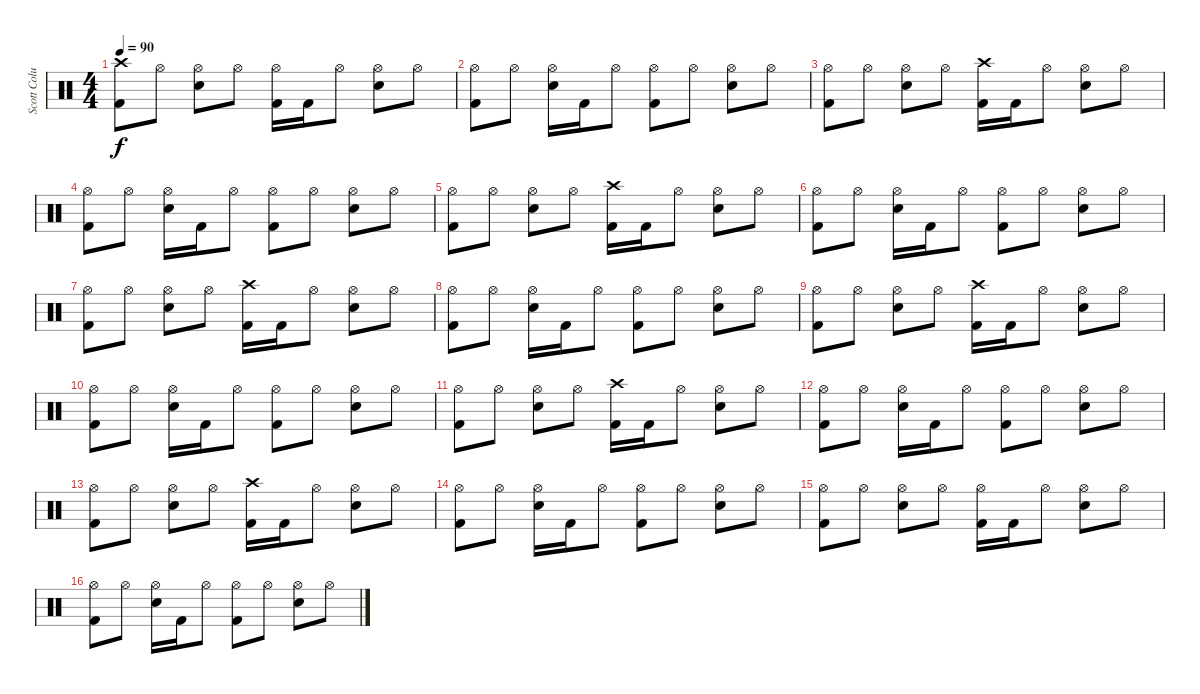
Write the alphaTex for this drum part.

\track ("Scott Columbus" "Scott Colu") {instrument percussion}
\staff {score}
\articulation defaults
\ts (4 4)
\tempo 90
\clef neutral
\ks c
("Crash high (hit)" "Kick (hit) 2").8{dy f volume 12} "Hi-Hat (open)".8 ("Hi-Hat (open)" "Snare (hit) 2").8 "Hi-Hat (open)".8 ("Hi-Hat (open)" "Kick (hit) 2").16 "Kick (hit) 2".16 "Hi-Hat (open)".8 ("Hi-Hat (open)" "Snare (hit) 2").8 "Hi-Hat (open)".8 |
("Hi-Hat (open)" "Kick (hit) 2").8 "Hi-Hat (open)".8 ("Hi-Hat (open)" "Snare (hit) 2").16 "Kick (hit) 2".16 "Hi-Hat (open)".8 ("Hi-Hat (open)" "Kick (hit) 2").8 "Hi-Hat (open)".8 ("Hi-Hat (open)" "Snare (hit) 2").8 "Hi-Hat (open)".8 |
("Hi-Hat (open)" "Kick (hit) 2").8{volume 9} "Hi-Hat (open)".8 ("Hi-Hat (open)" "Snare (hit) 2").8 "Hi-Hat (open)".8 ("Crash high (hit)" "Kick (hit) 2").16 "Kick (hit) 2".16 "Hi-Hat (open)".8 ("Hi-Hat (open)" "Snare (hit) 2").8 "Hi-Hat (open)".8 |
("Hi-Hat (open)" "Kick (hit) 2").8 "Hi-Hat (open)".8 ("Hi-Hat (open)" "Snare (hit) 2").16 "Kick (hit) 2".16 "Hi-Hat (open)".8 ("Hi-Hat (open)" "Kick (hit) 2").8 "Hi-Hat (open)".8 ("Hi-Hat (open)" "Snare (hit) 2").8 "Hi-Hat (open)".8 |
("Hi-Hat (open)" "Kick (hit) 2").8{volume 7} "Hi-Hat (open)".8 ("Hi-Hat (open)" "Snare (hit) 2").8 "Hi-Hat (open)".8 ("Crash high (hit)" "Kick (hit) 2").16 "Kick (hit) 2".16 "Hi-Hat (open)".8 ("Hi-Hat (open)" "Snare (hit) 2").8 "Hi-Hat (open)".8 |
("Hi-Hat (open)" "Kick (hit) 2").8 "Hi-Hat (open)".8 ("Hi-Hat (open)" "Snare (hit) 2").16 "Kick (hit) 2".16 "Hi-Hat (open)".8 ("Hi-Hat (open)" "Kick (hit) 2").8 "Hi-Hat (open)".8 ("Hi-Hat (open)" "Snare (hit) 2").8 "Hi-Hat (open)".8 |
("Hi-Hat (open)" "Kick (hit) 2").8{volume 7} "Hi-Hat (open)".8 ("Hi-Hat (open)" "Snare (hit) 2").8 "Hi-Hat (open)".8 ("Crash high (hit)" "Kick (hit) 2").16 "Kick (hit) 2".16 "Hi-Hat (open)".8 ("Hi-Hat (open)" "Snare (hit) 2").8 "Hi-Hat (open)".8 |
("Hi-Hat (open)" "Kick (hit) 2").8 "Hi-Hat (open)".8 ("Hi-Hat (open)" "Snare (hit) 2").16 "Kick (hit) 2".16 "Hi-Hat (open)".8 ("Hi-Hat (open)" "Kick (hit) 2").8 "Hi-Hat (open)".8 ("Hi-Hat (open)" "Snare (hit) 2").8 "Hi-Hat (open)".8 |
("Hi-Hat (open)" "Kick (hit) 2").8{volume 5} "Hi-Hat (open)".8 ("Hi-Hat (open)" "Snare (hit) 2").8 "Hi-Hat (open)".8 ("Crash high (hit)" "Kick (hit) 2").16 "Kick (hit) 2".16 "Hi-Hat (open)".8 ("Hi-Hat (open)" "Snare (hit) 2").8 "Hi-Hat (open)".8 |
("Hi-Hat (open)" "Kick (hit) 2").8 "Hi-Hat (open)".8 ("Hi-Hat (open)" "Snare (hit) 2").16 "Kick (hit) 2".16 "Hi-Hat (open)".8 ("Hi-Hat (open)" "Kick (hit) 2").8 "Hi-Hat (open)".8 ("Hi-Hat (open)" "Snare (hit) 2").8 "Hi-Hat (open)".8 |
("Hi-Hat (open)" "Kick (hit) 2").8{volume 3} "Hi-Hat (open)".8 ("Hi-Hat (open)" "Snare (hit) 2").8 "Hi-Hat (open)".8 ("Crash high (hit)" "Kick (hit) 2").16 "Kick (hit) 2".16 "Hi-Hat (open)".8 ("Hi-Hat (open)" "Snare (hit) 2").8 "Hi-Hat (open)".8 |
("Hi-Hat (open)" "Kick (hit) 2").8 "Hi-Hat (open)".8 ("Hi-Hat (open)" "Snare (hit) 2").16 "Kick (hit) 2".16 "Hi-Hat (open)".8 ("Hi-Hat (open)" "Kick (hit) 2").8 "Hi-Hat (open)".8 ("Hi-Hat (open)" "Snare (hit) 2").8 "Hi-Hat (open)".8 |
("Hi-Hat (open)" "Kick (hit) 2").8{volume 1} "Hi-Hat (open)".8 ("Hi-Hat (open)" "Snare (hit) 2").8 "Hi-Hat (open)".8 ("Crash high (hit)" "Kick (hit) 2").16 "Kick (hit) 2".16 "Hi-Hat (open)".8 ("Hi-Hat (open)" "Snare (hit) 2").8 "Hi-Hat (open)".8 |
("Hi-Hat (open)" "Kick (hit) 2").8 "Hi-Hat (open)".8 ("Hi-Hat (open)" "Snare (hit) 2").16 "Kick (hit) 2".16 "Hi-Hat (open)".8 ("Hi-Hat (open)" "Kick (hit) 2").8 "Hi-Hat (open)".8 ("Hi-Hat (open)" "Snare (hit) 2").8 "Hi-Hat (open)".8 |
("Hi-Hat (open)" "Kick (hit) 2").8{volume 0} "Hi-Hat (open)".8 ("Hi-Hat (open)" "Snare (hit) 2").8 "Hi-Hat (open)".8 ("Hi-Hat (open)" "Kick (hit) 2").16 "Kick (hit) 2".16 "Hi-Hat (open)".8 ("Hi-Hat (open)" "Snare (hit) 2").8 "Hi-Hat (open)".8 |
("Hi-Hat (open)" "Kick (hit) 2").8 "Hi-Hat (open)".8 ("Hi-Hat (open)" "Snare (hit) 2").16 "Kick (hit) 2".16 "Hi-Hat (open)".8 ("Hi-Hat (open)" "Kick (hit) 2").8 "Hi-Hat (open)".8 ("Hi-Hat (open)" "Snare (hit) 2").8 "Hi-Hat (open)".8
